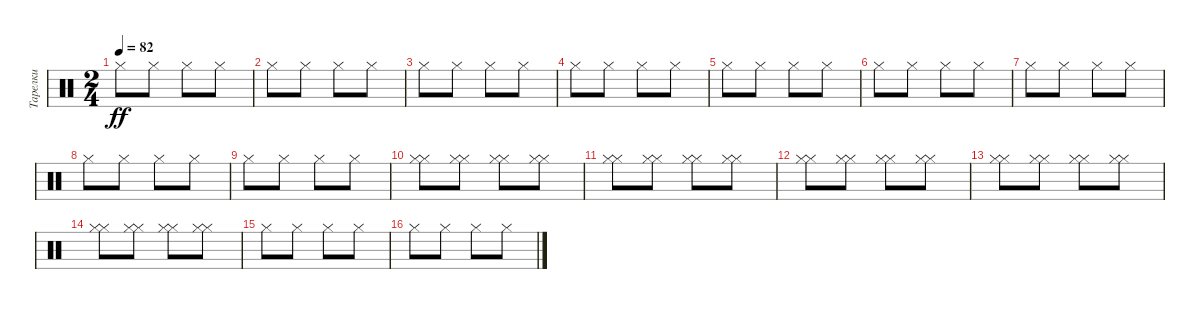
\track ("Тарелки" "Тарелки") {instrument percussion}
\staff {score}
\articulation defaults
\ts (2 4)
\tempo 82
\clef neutral
\ks c "Hi-Hat (closed)".8{dy ff} "Hi-Hat (closed)".8 "Hi-Hat (closed)".8 "Hi-Hat (closed)".8
|
"Hi-Hat (closed)".8 "Hi-Hat (closed)".8 "Hi-Hat (closed)".8 "Hi-Hat (closed)".8 |
"Hi-Hat (closed)".8 "Hi-Hat (closed)".8 "Hi-Hat (closed)".8 "Hi-Hat (closed)".8 |
"Hi-Hat (closed)".8 "Hi-Hat (closed)".8 "Hi-Hat (closed)".8 "Hi-Hat (closed)".8 |
"Hi-Hat (closed)".8 "Hi-Hat (closed)".8 "Hi-Hat (closed)".8 "Hi-Hat (closed)".8 |
"Hi-Hat (closed)".8 "Hi-Hat (closed)".8 "Hi-Hat (closed)".8 "Hi-Hat (closed)".8 |
"Hi-Hat (closed)".8 "Hi-Hat (closed)".8 "Hi-Hat (closed)".8 "Hi-Hat (closed)".8 |
"Hi-Hat (closed)".8 "Hi-Hat (closed)".8 "Hi-Hat (closed)".8 "Hi-Hat (closed)".8 |
"Hi-Hat (closed)".8 "Hi-Hat (closed)".8 "Hi-Hat (closed)".8 "Hi-Hat (closed)".8 |
("Hi-Hat (closed)" "Hi-Hat (closed)").8 ("Hi-Hat (closed)" "Hi-Hat (closed)").8 ("Hi-Hat (closed)" "Hi-Hat (closed)").8 ("Hi-Hat (closed)" "Hi-Hat (closed)").8 |
("Hi-Hat (closed)" "Hi-Hat (closed)").8 ("Hi-Hat (closed)" "Hi-Hat (closed)").8 ("Hi-Hat (closed)" "Hi-Hat (closed)").8 ("Hi-Hat (closed)" "Hi-Hat (closed)").8 |
("Hi-Hat (closed)" "Hi-Hat (closed)").8 ("Hi-Hat (closed)" "Hi-Hat (closed)").8 ("Hi-Hat (closed)" "Hi-Hat (closed)").8 ("Hi-Hat (closed)" "Hi-Hat (closed)").8 |
("Hi-Hat (closed)" "Hi-Hat (closed)").8 ("Hi-Hat (closed)" "Hi-Hat (closed)").8 ("Hi-Hat (closed)" "Hi-Hat (closed)").8 ("Hi-Hat (closed)" "Hi-Hat (closed)").8 |
("Hi-Hat (closed)" "Hi-Hat (closed)").8 ("Hi-Hat (closed)" "Hi-Hat (closed)").8 ("Hi-Hat (closed)" "Hi-Hat (closed)").8 ("Hi-Hat (closed)" "Hi-Hat (closed)").8 |
"Hi-Hat (closed)".8 "Hi-Hat (closed)".8 "Hi-Hat (closed)".8 "Hi-Hat (closed)".8 |
"Hi-Hat (closed)".8 "Hi-Hat (closed)".8 "Hi-Hat (closed)".8 "Hi-Hat (closed)".8
